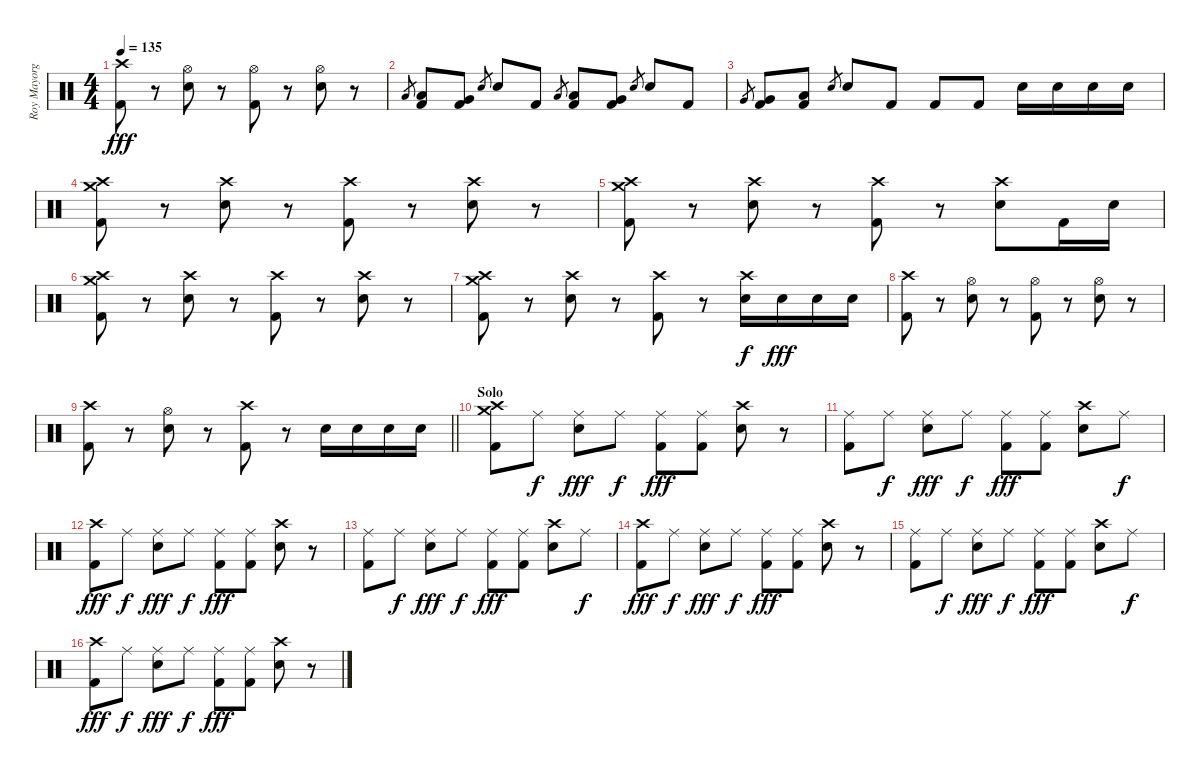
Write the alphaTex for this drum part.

\track ("Roy Mayorga" "Roy Mayorg") {instrument percussion}
\staff {score}
\articulation defaults
\ts (4 4)
\tempo 135
\clef neutral
\ks c
("Crash high (hit)" "Kick (hit) 2").8{dy fff} r.8 ("Hi-Hat (open)" "Electric Snare (hit)").8 r.8 ("Hi-Hat (open)" "Kick (hit) 2").8 r.8 ("Hi-Hat (open)" "Electric Snare (hit)").8 r.8 |
"Low Floor Tom (hit)".8{gr} ("Low Floor Tom (hit)" "Kick (hit) 2").8 ("Very Low Tom (hit)" "Kick (hit) 2").8 "Electric Snare (hit)".8{gr} "Electric Snare (hit)".8 "Kick (hit) 2".8 "Low Floor Tom (hit)".8{gr} ("Low Floor Tom (hit)" "Kick (hit) 2").8 ("Very Low Tom (hit)" "Kick (hit) 2").8 "Electric Snare (hit)".8{gr} "Electric Snare (hit)".8 "Kick (hit) 2".8 |
"Very Low Tom (hit)".8{gr} ("Very Low Tom (hit)" "Kick (hit) 2").8 ("Low Floor Tom (hit)" "Kick (hit) 2").8 "Electric Snare (hit)".8{gr} "Electric Snare (hit)".8 "Kick (hit) 2".8 "Kick (hit) 2".8 "Kick (hit) 2".8 "Electric Snare (hit)".16 "Electric Snare (hit)".16 "Electric Snare (hit)".16 "Electric Snare (hit)".16 |
("Crash medium (hit)" "Crash high (hit)" "Kick (hit) 2").8 r.8 ("Crash high (hit)" "Electric Snare (hit)").8 r.8 ("Crash high (hit)" "Kick (hit) 2").8 r.8 ("Crash high (hit)" "Electric Snare (hit)").8 r.8 |
("Crash medium (hit)" "Crash high (hit)" "Kick (hit) 2").8 r.8 ("Crash high (hit)" "Electric Snare (hit)").8 r.8 ("Crash high (hit)" "Kick (hit) 2").8 r.8 ("Crash high (hit)" "Electric Snare (hit)").8 "Kick (hit) 2".16 "Electric Snare (hit)".16 |
("Crash medium (hit)" "Crash high (hit)" "Kick (hit) 2").8 r.8 ("Crash high (hit)" "Electric Snare (hit)").8 r.8 ("Crash high (hit)" "Kick (hit) 2").8 r.8 ("Crash high (hit)" "Electric Snare (hit)").8 r.8 |
("Crash medium (hit)" "Crash high (hit)" "Kick (hit) 2").8 r.8 ("Crash high (hit)" "Electric Snare (hit)").8 r.8 ("Crash high (hit)" "Kick (hit) 2").8 r.8 ("Crash high (hit)" "Electric Snare (hit)").16{dy f} "Electric Snare (hit)".16{dy fff} "Electric Snare (hit)".16 "Electric Snare (hit)".16 |
("Crash high (hit)" "Kick (hit) 2").8 r.8 ("Hi-Hat (open)" "Electric Snare (hit)").8 r.8 ("Hi-Hat (open)" "Kick (hit) 2").8 r.8 ("Hi-Hat (open)" "Electric Snare (hit)").8 r.8 |
\barLineRight lightlight
("Crash high (hit)" "Kick (hit) 2").8 r.8 ("Hi-Hat (open)" "Electric Snare (hit)").8 r.8 ("Crash high (hit)" "Kick (hit) 2").8 r.8 "Electric Snare (hit)".16 "Electric Snare (hit)".16 "Electric Snare (hit)".16 "Electric Snare (hit)".16 |
\section ("" "Solo")
("Crash high (hit)" "Crash medium (hit)" "Kick (hit) 2").8 "Ride (middle)".8{dy f} ("Ride (middle)" "Electric Snare (hit)").8{dy fff} "Ride (middle)".8{dy f} ("Ride (middle)" "Kick (hit) 2").8{dy fff} ("Ride (middle)" "Kick (hit) 2").8 ("Crash high (hit)" "Electric Snare (hit)").8 r.8 |
("Ride (middle)" "Kick (hit) 2").8 "Ride (middle)".8{dy f} ("Ride (middle)" "Electric Snare (hit)").8{dy fff} "Ride (middle)".8{dy f} ("Ride (middle)" "Kick (hit) 2").8{dy fff} ("Ride (middle)" "Kick (hit) 2").8 ("Crash high (hit)" "Electric Snare (hit)").8 "Ride (middle)".8{dy f} |
("Crash high (hit)" "Kick (hit) 2").8{dy fff} "Ride (middle)".8{dy f} ("Ride (middle)" "Electric Snare (hit)").8{dy fff} "Ride (middle)".8{dy f} ("Ride (middle)" "Kick (hit) 2").8{dy fff} ("Ride (middle)" "Kick (hit) 2").8 ("Crash high (hit)" "Electric Snare (hit)").8 r.8 |
("Ride (middle)" "Kick (hit) 2").8 "Ride (middle)".8{dy f} ("Ride (middle)" "Electric Snare (hit)").8{dy fff} "Ride (middle)".8{dy f} ("Ride (middle)" "Kick (hit) 2").8{dy fff} ("Ride (middle)" "Kick (hit) 2").8 ("Crash high (hit)" "Electric Snare (hit)").8 "Ride (middle)".8{dy f} |
("Crash high (hit)" "Kick (hit) 2").8{dy fff} "Ride (middle)".8{dy f} ("Ride (middle)" "Electric Snare (hit)").8{dy fff} "Ride (middle)".8{dy f} ("Ride (middle)" "Kick (hit) 2").8{dy fff} ("Ride (middle)" "Kick (hit) 2").8 ("Crash high (hit)" "Electric Snare (hit)").8 r.8 |
("Ride (middle)" "Kick (hit) 2").8 "Ride (middle)".8{dy f} ("Ride (middle)" "Electric Snare (hit)").8{dy fff} "Ride (middle)".8{dy f} ("Ride (middle)" "Kick (hit) 2").8{dy fff} ("Ride (middle)" "Kick (hit) 2").8 ("Crash high (hit)" "Electric Snare (hit)").8 "Ride (middle)".8{dy f} |
("Crash high (hit)" "Kick (hit) 2").8{dy fff} "Ride (middle)".8{dy f} ("Ride (middle)" "Electric Snare (hit)").8{dy fff} "Ride (middle)".8{dy f} ("Ride (middle)" "Kick (hit) 2").8{dy fff} ("Ride (middle)" "Kick (hit) 2").8 ("Crash high (hit)" "Electric Snare (hit)").8 r.8
